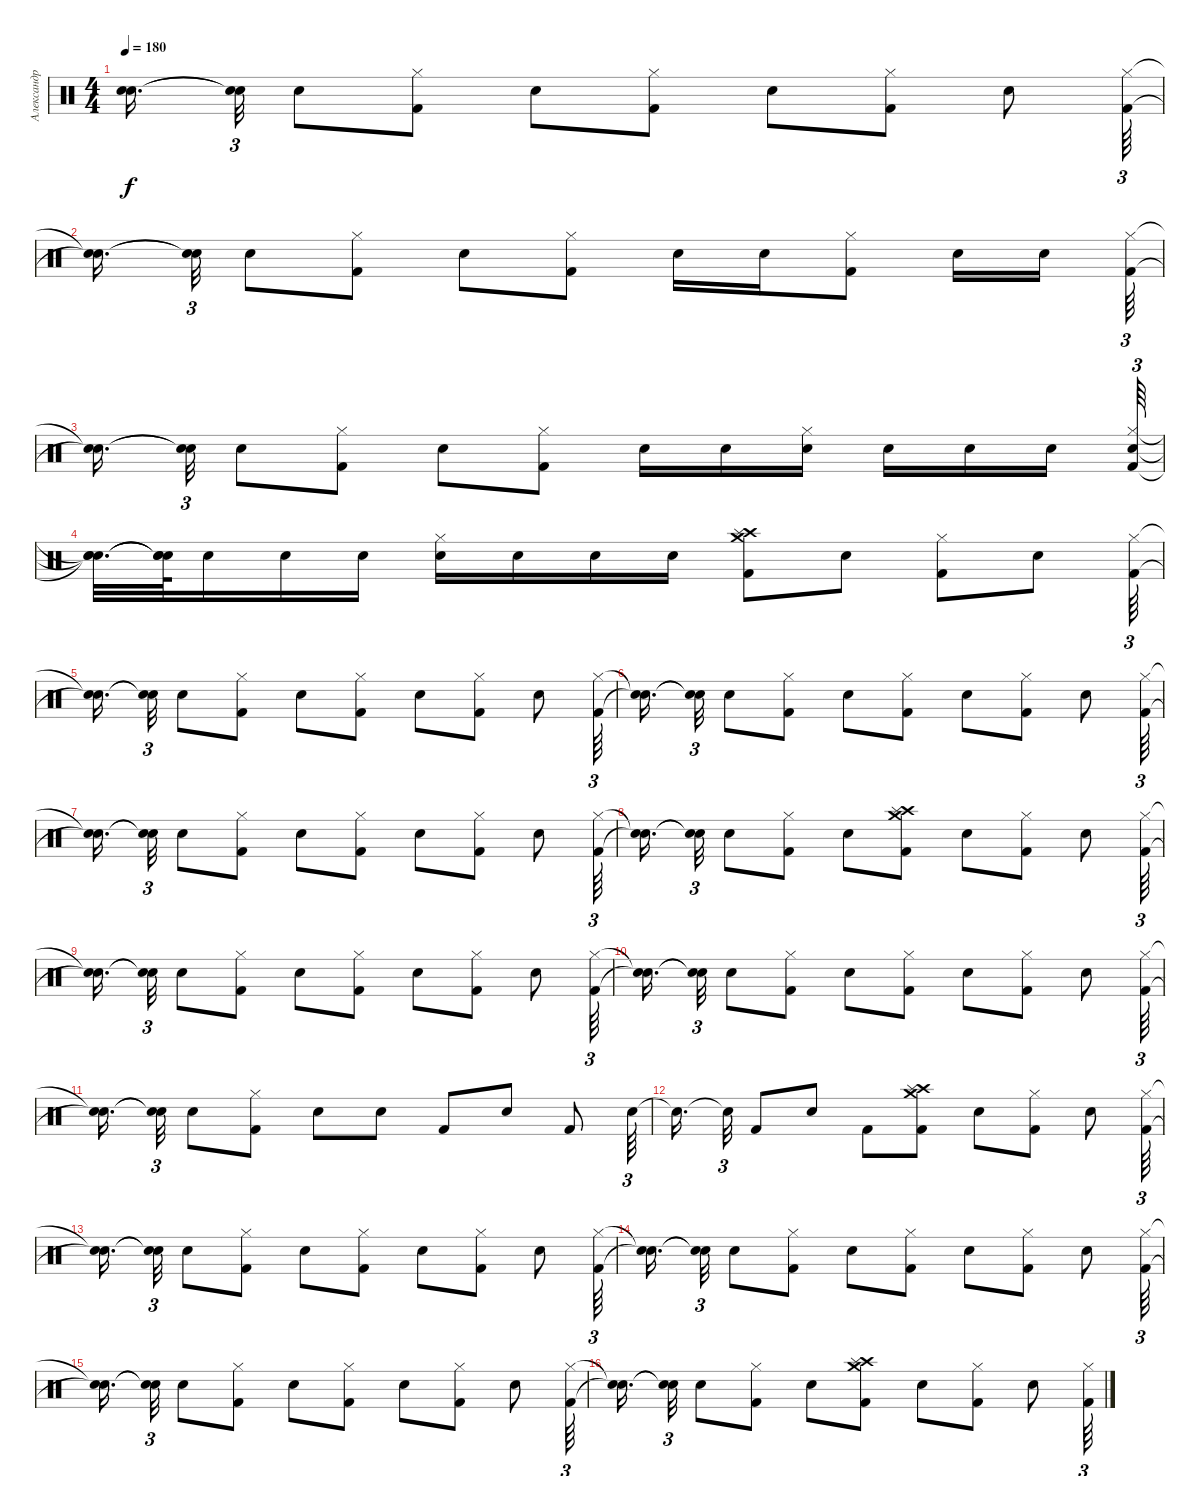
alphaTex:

\track ("Александр Карпухин" "Александр ") {instrument percussion}
\staff {score}
\articulation defaults
\ts (4 4)
\tempo 180
\clef neutral
\ks c
("Snare (hit)"{t} "Snare (hit)"{t}).16{d dy f beam splitsecondary} ("Snare (hit)"{t} "Snare (hit)"{t}).32{tu (3 2)} "Snare (hit) 2".8 ("Hi-Hat (closed)" "Kick (hit) 2").8 "Snare (hit) 2".8 ("Hi-Hat (closed)" "Kick (hit) 2").8 "Snare (hit) 2".8 ("Hi-Hat (closed)" "Kick (hit) 2").8 "Snare (hit) 2".8 ("Hi-Hat (closed)" "Kick (hit) 2").64{tu (3 2)} |
("Snare (hit)"{t} "Snare (hit)"{t}).16{d beam splitsecondary} ("Snare (hit)"{t} "Snare (hit)"{t}).32{tu (3 2)} "Snare (hit) 2".8 ("Hi-Hat (closed)" "Kick (hit) 2").8 "Snare (hit) 2".8 ("Hi-Hat (closed)" "Kick (hit) 2").8 "Snare (hit) 2".16 "Snare (hit) 2".16 ("Hi-Hat (closed)" "Kick (hit) 2").8 "Snare (hit) 2".16 "Snare (hit) 2".16{beam splitsecondary} ("Hi-Hat (closed)" "Kick (hit) 2").64{tu (3 2)} |
("Snare (hit)"{t} "Snare (hit)"{t}).16{d beam splitsecondary} ("Snare (hit)"{t} "Snare (hit)"{t}).32{tu (3 2)} "Snare (hit) 2".8 ("Hi-Hat (closed)" "Kick (hit) 2").8 "Snare (hit) 2".8 ("Hi-Hat (closed)" "Kick (hit) 2").8 "Snare (hit) 2".16 "Snare (hit) 2".16 ("Hi-Hat (closed)" "Snare (hit) 2").16 "Snare (hit) 2".16 "Snare (hit) 2".16 "Snare (hit) 2".16{beam splitsecondary} ("Hi-Hat (closed)" "Snare (hit) 2" "Kick (hit) 2").64{tu (3 2)} |
("Snare (hit)"{t} "Snare (hit)"{t} "Snare (hit)"{t}).32{d} ("Snare (hit)"{t} "Snare (hit)"{t} "Snare (hit)"{t}).64 "Snare (hit) 2".16 "Snare (hit) 2".16 "Snare (hit) 2".16 ("Hi-Hat (closed)" "Snare (hit) 2").16 "Snare (hit) 2".16 "Snare (hit) 2".16 "Snare (hit) 2".16 ("Crash high (hit)" "Crash medium (hit)" "Splash (hit)" "Kick (hit) 2").8 "Snare (hit) 2".8 ("Hi-Hat (closed)" "Kick (hit) 2").8 "Snare (hit) 2".8 ("Hi-Hat (closed)" "Kick (hit) 2").64{tu (3 2)} |
("Snare (hit)"{t} "Snare (hit)"{t}).16{d beam splitsecondary} ("Snare (hit)"{t} "Snare (hit)"{t}).32{tu (3 2)} "Snare (hit) 2".8 ("Hi-Hat (closed)" "Kick (hit) 2").8 "Snare (hit) 2".8 ("Hi-Hat (closed)" "Kick (hit) 2").8 "Snare (hit) 2".8 ("Hi-Hat (closed)" "Kick (hit) 2").8 "Snare (hit) 2".8 ("Hi-Hat (closed)" "Kick (hit) 2").64{tu (3 2)} |
("Snare (hit)"{t} "Snare (hit)"{t}).16{d beam splitsecondary} ("Snare (hit)"{t} "Snare (hit)"{t}).32{tu (3 2)} "Snare (hit) 2".8 ("Hi-Hat (closed)" "Kick (hit) 2").8 "Snare (hit) 2".8 ("Hi-Hat (closed)" "Kick (hit) 2").8 "Snare (hit) 2".8 ("Hi-Hat (closed)" "Kick (hit) 2").8 "Snare (hit) 2".8 ("Hi-Hat (closed)" "Kick (hit) 2").64{tu (3 2)} |
("Snare (hit)"{t} "Snare (hit)"{t}).16{d beam splitsecondary} ("Snare (hit)"{t} "Snare (hit)"{t}).32{tu (3 2)} "Snare (hit) 2".8 ("Hi-Hat (closed)" "Kick (hit) 2").8 "Snare (hit) 2".8 ("Hi-Hat (closed)" "Kick (hit) 2").8 "Snare (hit) 2".8 ("Hi-Hat (closed)" "Kick (hit) 2").8 "Snare (hit) 2".8 ("Hi-Hat (closed)" "Kick (hit) 2").64{tu (3 2)} |
("Snare (hit)"{t} "Snare (hit)"{t}).16{d beam splitsecondary} ("Snare (hit)"{t} "Snare (hit)"{t}).32{tu (3 2)} "Snare (hit) 2".8 ("Hi-Hat (closed)" "Kick (hit) 2").8 "Snare (hit) 2".8 ("Crash high (hit)" "Crash medium (hit)" "Splash (hit)" "Kick (hit) 2").8 "Snare (hit) 2".8 ("Hi-Hat (closed)" "Kick (hit) 2").8 "Snare (hit) 2".8 ("Hi-Hat (closed)" "Kick (hit) 2").64{tu (3 2)} |
("Snare (hit)"{t} "Snare (hit)"{t}).16{d beam splitsecondary} ("Snare (hit)"{t} "Snare (hit)"{t}).32{tu (3 2)} "Snare (hit) 2".8 ("Hi-Hat (closed)" "Kick (hit) 2").8 "Snare (hit) 2".8 ("Hi-Hat (closed)" "Kick (hit) 2").8 "Snare (hit) 2".8 ("Hi-Hat (closed)" "Kick (hit) 2").8 "Snare (hit) 2".8 ("Hi-Hat (closed)" "Kick (hit) 2").64{tu (3 2)} |
("Snare (hit)"{t} "Snare (hit)"{t}).16{d beam splitsecondary} ("Snare (hit)"{t} "Snare (hit)"{t}).32{tu (3 2)} "Snare (hit) 2".8 ("Hi-Hat (closed)" "Kick (hit) 2").8 "Snare (hit) 2".8 ("Hi-Hat (closed)" "Kick (hit) 2").8 "Snare (hit) 2".8 ("Hi-Hat (closed)" "Kick (hit) 2").8 "Snare (hit) 2".8 ("Hi-Hat (closed)" "Kick (hit) 2").64{tu (3 2)} |
("Snare (hit)"{t} "Snare (hit)"{t}).16{d beam splitsecondary} ("Snare (hit)"{t} "Snare (hit)"{t}).32{tu (3 2)} "Snare (hit) 2".8 ("Hi-Hat (closed)" "Kick (hit) 2").8 "Snare (hit) 2".8 "Snare (hit) 2".8 "Kick (hit) 2".8 "Snare (hit) 2".8 "Kick (hit) 2".8 "Snare (hit) 2".64{tu (3 2)} |
"Snare (hit)"{t}.16{d beam splitsecondary} "Snare (hit)"{t}.32{tu (3 2)} "Kick (hit) 2".8 "Snare (hit) 2".8 "Kick (hit) 2".8 ("Crash high (hit)" "Crash medium (hit)" "Splash (hit)" "Kick (hit) 2").8 "Snare (hit) 2".8 ("Hi-Hat (closed)" "Kick (hit) 2").8 "Snare (hit) 2".8 ("Hi-Hat (closed)" "Kick (hit) 2").64{tu (3 2)} |
("Snare (hit)"{t} "Snare (hit)"{t}).16{d beam splitsecondary} ("Snare (hit)"{t} "Snare (hit)"{t}).32{tu (3 2)} "Snare (hit) 2".8 ("Hi-Hat (closed)" "Kick (hit) 2").8 "Snare (hit) 2".8 ("Hi-Hat (closed)" "Kick (hit) 2").8 "Snare (hit) 2".8 ("Hi-Hat (closed)" "Kick (hit) 2").8 "Snare (hit) 2".8 ("Hi-Hat (closed)" "Kick (hit) 2").64{tu (3 2)} |
("Snare (hit)"{t} "Snare (hit)"{t}).16{d beam splitsecondary} ("Snare (hit)"{t} "Snare (hit)"{t}).32{tu (3 2)} "Snare (hit) 2".8 ("Hi-Hat (closed)" "Kick (hit) 2").8 "Snare (hit) 2".8 ("Hi-Hat (closed)" "Kick (hit) 2").8 "Snare (hit) 2".8 ("Hi-Hat (closed)" "Kick (hit) 2").8 "Snare (hit) 2".8 ("Hi-Hat (closed)" "Kick (hit) 2").64{tu (3 2)} |
("Snare (hit)"{t} "Snare (hit)"{t}).16{d beam splitsecondary} ("Snare (hit)"{t} "Snare (hit)"{t}).32{tu (3 2)} "Snare (hit) 2".8 ("Hi-Hat (closed)" "Kick (hit) 2").8 "Snare (hit) 2".8 ("Hi-Hat (closed)" "Kick (hit) 2").8 "Snare (hit) 2".8 ("Hi-Hat (closed)" "Kick (hit) 2").8 "Snare (hit) 2".8 ("Hi-Hat (closed)" "Kick (hit) 2").64{tu (3 2)} |
("Snare (hit)"{t} "Snare (hit)"{t}).16{d beam splitsecondary} ("Snare (hit)"{t} "Snare (hit)"{t}).32{tu (3 2)} "Snare (hit) 2".8 ("Hi-Hat (closed)" "Kick (hit) 2").8 "Snare (hit) 2".8 ("Crash high (hit)" "Crash medium (hit)" "Splash (hit)" "Kick (hit) 2").8 "Snare (hit) 2".8 ("Hi-Hat (closed)" "Kick (hit) 2").8 "Snare (hit) 2".8 ("Hi-Hat (closed)" "Kick (hit) 2").64{tu (3 2)}
